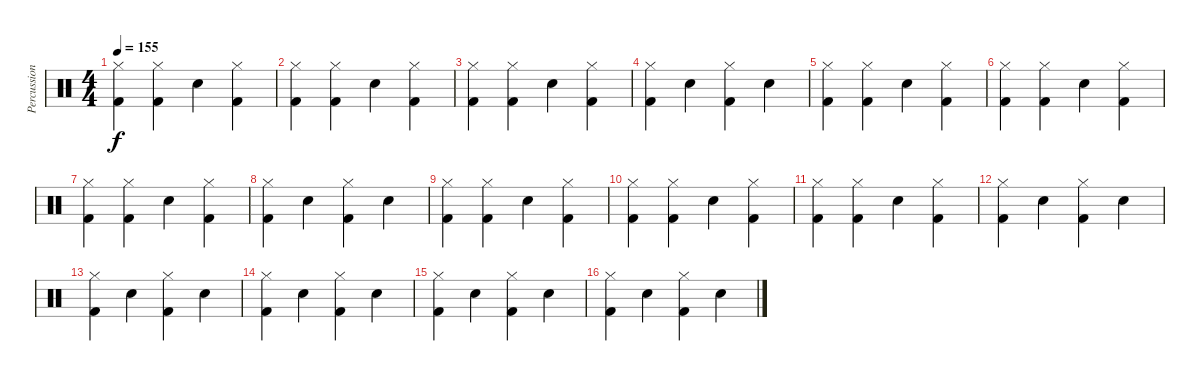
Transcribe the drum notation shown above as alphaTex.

\track ("Percussion" "Percussion") {instrument percussion}
\staff {score}
\articulation defaults
\ts (4 4)
\tempo 155
\clef neutral
\ks c
("Hi-Hat (closed)" "Kick (hit) 2").4{dy f} ("Hi-Hat (closed)" "Kick (hit) 2").4 "Electric Snare (hit)".4 ("Hi-Hat (closed)" "Kick (hit) 2").4 |
("Hi-Hat (closed)" "Kick (hit) 2").4 ("Hi-Hat (closed)" "Kick (hit) 2").4 "Electric Snare (hit)".4 ("Hi-Hat (closed)" "Kick (hit) 2").4 |
("Hi-Hat (closed)" "Kick (hit) 2").4 ("Hi-Hat (closed)" "Kick (hit) 2").4 "Electric Snare (hit)".4 ("Hi-Hat (closed)" "Kick (hit) 2").4 |
("Hi-Hat (closed)" "Kick (hit) 2").4 "Electric Snare (hit)".4 ("Hi-Hat (closed)" "Kick (hit) 2").4 "Electric Snare (hit)".4 |
("Hi-Hat (closed)" "Kick (hit) 2").4 ("Hi-Hat (closed)" "Kick (hit) 2").4 "Electric Snare (hit)".4 ("Hi-Hat (closed)" "Kick (hit) 2").4 |
("Hi-Hat (closed)" "Kick (hit) 2").4 ("Hi-Hat (closed)" "Kick (hit) 2").4 "Electric Snare (hit)".4 ("Hi-Hat (closed)" "Kick (hit) 2").4 |
("Hi-Hat (closed)" "Kick (hit) 2").4 ("Hi-Hat (closed)" "Kick (hit) 2").4 "Electric Snare (hit)".4 ("Hi-Hat (closed)" "Kick (hit) 2").4 |
("Hi-Hat (closed)" "Kick (hit) 2").4 "Electric Snare (hit)".4 ("Hi-Hat (closed)" "Kick (hit) 2").4 "Electric Snare (hit)".4 |
("Hi-Hat (closed)" "Kick (hit) 2").4 ("Hi-Hat (closed)" "Kick (hit) 2").4 "Electric Snare (hit)".4 ("Hi-Hat (closed)" "Kick (hit) 2").4 |
("Hi-Hat (closed)" "Kick (hit) 2").4 ("Hi-Hat (closed)" "Kick (hit) 2").4 "Electric Snare (hit)".4 ("Hi-Hat (closed)" "Kick (hit) 2").4 |
("Hi-Hat (closed)" "Kick (hit) 2").4 ("Hi-Hat (closed)" "Kick (hit) 2").4 "Electric Snare (hit)".4 ("Hi-Hat (closed)" "Kick (hit) 2").4 |
("Hi-Hat (closed)" "Kick (hit) 2").4 "Electric Snare (hit)".4 ("Hi-Hat (closed)" "Kick (hit) 2").4 "Electric Snare (hit)".4 |
("Hi-Hat (closed)" "Kick (hit) 2").4 "Electric Snare (hit)".4 ("Hi-Hat (closed)" "Kick (hit) 2").4 "Electric Snare (hit)".4 |
("Hi-Hat (closed)" "Kick (hit) 2").4 "Electric Snare (hit)".4 ("Hi-Hat (closed)" "Kick (hit) 2").4 "Electric Snare (hit)".4 |
("Hi-Hat (closed)" "Kick (hit) 2").4 "Electric Snare (hit)".4 ("Hi-Hat (closed)" "Kick (hit) 2").4 "Electric Snare (hit)".4 |
("Hi-Hat (closed)" "Kick (hit) 2").4 "Electric Snare (hit)".4 ("Hi-Hat (closed)" "Kick (hit) 2").4 "Electric Snare (hit)".4
